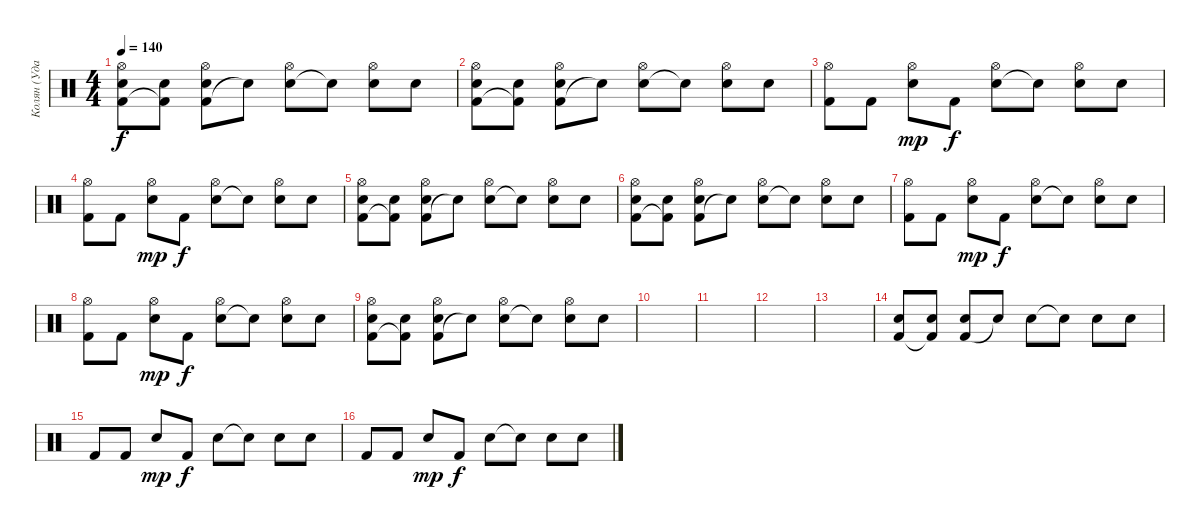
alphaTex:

\track ("Колян (Ударные)" "Колян (Уда") {instrument percussion}
\staff {score}
\articulation defaults
\ts (4 4)
\tempo 140
\clef neutral
\ks c
("Kick (hit) 2" "Snare (hit) 2" "Hi-Hat (open)").8{dy f} ("Kick (hit) 2"{t} "Snare (hit) 2").8 ("Kick (hit) 2" "Snare (hit) 2" "Hi-Hat (open)").8 "Snare (hit)"{t}.8 ("Snare (hit) 2" "Hi-Hat (open)").8 "Snare (hit)"{t}.8 ("Snare (hit) 2" "Hi-Hat (open)").8 "Snare (hit) 2".8 |
("Kick (hit) 2" "Snare (hit) 2" "Hi-Hat (open)").8 ("Kick (hit) 2"{t} "Snare (hit) 2").8 ("Kick (hit) 2" "Snare (hit) 2" "Hi-Hat (open)").8 "Snare (hit)"{t}.8 ("Snare (hit) 2" "Hi-Hat (open)").8 "Snare (hit)"{t}.8 ("Snare (hit) 2" "Hi-Hat (open)").8 "Snare (hit) 2".8 |
("Kick (hit) 2" "Hi-Hat (open)").8 "Kick (hit) 2".8 ("Snare (hit) 2" "Hi-Hat (open)").8{dy mp} "Kick (hit) 2".8{dy f} ("Snare (hit) 2" "Hi-Hat (open)").8 "Snare (hit)"{t}.8 ("Snare (hit) 2" "Hi-Hat (open)").8 "Snare (hit) 2".8 |
("Kick (hit) 2" "Hi-Hat (open)").8 "Kick (hit) 2".8 ("Snare (hit) 2" "Hi-Hat (open)").8{dy mp} "Kick (hit) 2".8{dy f} ("Snare (hit) 2" "Hi-Hat (open)").8 "Snare (hit)"{t}.8 ("Snare (hit) 2" "Hi-Hat (open)").8 "Snare (hit) 2".8 |
("Kick (hit) 2" "Snare (hit) 2" "Hi-Hat (open)").8 ("Kick (hit) 2"{t} "Snare (hit) 2").8 ("Kick (hit) 2" "Snare (hit) 2" "Hi-Hat (open)").8 "Snare (hit)"{t}.8 ("Snare (hit) 2" "Hi-Hat (open)").8 "Snare (hit)"{t}.8 ("Snare (hit) 2" "Hi-Hat (open)").8 "Snare (hit) 2".8 |
("Kick (hit) 2" "Snare (hit) 2" "Hi-Hat (open)").8 ("Kick (hit) 2"{t} "Snare (hit) 2").8 ("Kick (hit) 2" "Snare (hit) 2" "Hi-Hat (open)").8 "Snare (hit)"{t}.8 ("Snare (hit) 2" "Hi-Hat (open)").8 "Snare (hit)"{t}.8 ("Snare (hit) 2" "Hi-Hat (open)").8 "Snare (hit) 2".8 |
("Kick (hit) 2" "Hi-Hat (open)").8 "Kick (hit) 2".8 ("Snare (hit) 2" "Hi-Hat (open)").8{dy mp} "Kick (hit) 2".8{dy f} ("Snare (hit) 2" "Hi-Hat (open)").8 "Snare (hit)"{t}.8 ("Snare (hit) 2" "Hi-Hat (open)").8 "Snare (hit) 2".8 |
("Kick (hit) 2" "Hi-Hat (open)").8 "Kick (hit) 2".8 ("Snare (hit) 2" "Hi-Hat (open)").8{dy mp} "Kick (hit) 2".8{dy f} ("Snare (hit) 2" "Hi-Hat (open)").8 "Snare (hit)"{t}.8 ("Snare (hit) 2" "Hi-Hat (open)").8 "Snare (hit) 2".8 |
("Kick (hit) 2" "Snare (hit) 2" "Hi-Hat (open)").8 ("Kick (hit) 2"{t} "Snare (hit) 2").8 ("Kick (hit) 2" "Snare (hit) 2" "Hi-Hat (open)").8 "Snare (hit)"{t}.8 ("Snare (hit) 2" "Hi-Hat (open)").8 "Snare (hit)"{t}.8 ("Snare (hit) 2" "Hi-Hat (open)").8 "Snare (hit) 2".8 |
|
|
|
|
("Kick (hit) 2" "Snare (hit) 2").8 ("Kick (hit) 2"{t} "Snare (hit) 2").8 ("Kick (hit) 2" "Snare (hit) 2").8 "Snare (hit)"{t}.8 "Snare (hit) 2".8 "Snare (hit)"{t}.8 "Snare (hit) 2".8 "Snare (hit) 2".8 |
"Kick (hit) 2".8 "Kick (hit) 2".8 "Snare (hit) 2".8{dy mp} "Kick (hit) 2".8{dy f} "Snare (hit) 2".8 "Snare (hit)"{t}.8 "Snare (hit) 2".8 "Snare (hit) 2".8 |
"Kick (hit) 2".8 "Kick (hit) 2".8 "Snare (hit) 2".8{dy mp} "Kick (hit) 2".8{dy f} "Snare (hit) 2".8 "Snare (hit)"{t}.8 "Snare (hit) 2".8 "Snare (hit) 2".8
